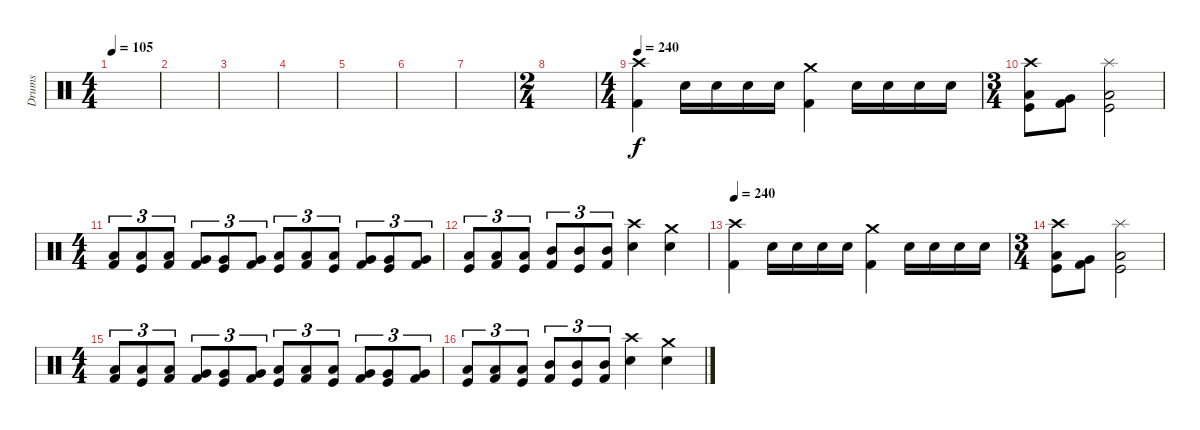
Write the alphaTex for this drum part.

\track ("Drums" "Drums") {instrument percussion}
\staff {score}
\articulation defaults
\ts (4 4)
\tempo 105
\clef neutral
\ks c
|
|
|
|
|
|
|
\ts (2 4)
|
\ts (4 4)
\tempo 240
("Crash high (hit)" "Kick (hit) 2").4 "Electric Snare (hit)".16 "Electric Snare (hit)".16 "Electric Snare (hit)".16 "Electric Snare (hit)".16 ("Crash medium (hit)" "Kick (hit) 2").4 "Electric Snare (hit)".16 "Electric Snare (hit)".16 "Electric Snare (hit)".16 "Electric Snare (hit)".16 |
\ts (3 4)
("Crash high (hit)" "Low Floor Tom (hit)" "Kick (hit)").8 ("Very Low Tom (hit)" "Kick (hit) 2").8 ("Splash (hit)" "Low Floor Tom (hit)" "Kick (hit)").2 |
\ts (4 4)
("Low Floor Tom (hit)" "Kick (hit) 2").8{tu (3 2)} ("Low Floor Tom (hit)" "Kick (hit)").8{tu (3 2)} ("Low Floor Tom (hit)" "Kick (hit) 2").8{tu (3 2)} ("Very Low Tom (hit)" "Kick (hit) 2").8{tu (3 2)} ("Very Low Tom (hit)" "Kick (hit)").8{tu (3 2)} ("Very Low Tom (hit)" "Kick (hit) 2").8{tu (3 2)} ("Low Floor Tom (hit)" "Kick (hit)").8{tu (3 2)} ("Low Floor Tom (hit)" "Kick (hit) 2").8{tu (3 2)} ("Low Floor Tom (hit)" "Kick (hit)").8{tu (3 2)} ("Very Low Tom (hit)" "Kick (hit) 2").8{tu (3 2)} ("Very Low Tom (hit)" "Kick (hit)").8{tu (3 2)} ("Very Low Tom (hit)" "Kick (hit) 2").8{tu (3 2)} |
("Low Tom (hit)" "Kick (hit)").8{tu (3 2)} ("Low Tom (hit)" "Kick (hit) 2").8{tu (3 2)} ("Low Tom (hit)" "Kick (hit)").8{tu (3 2)} ("Mid Tom (hit)" "Kick (hit) 2").8{tu (3 2)} ("Mid Tom (hit)" "Kick (hit)").8{tu (3 2)} ("Mid Tom (hit)" "Kick (hit) 2").8{tu (3 2)} ("Crash high (hit)" "Electric Snare (hit)").4 ("Crash medium (hit)" "Electric Snare (hit)").4 |
\tempo 240
("Crash high (hit)" "Kick (hit) 2").4 "Electric Snare (hit)".16 "Electric Snare (hit)".16 "Electric Snare (hit)".16 "Electric Snare (hit)".16 ("Crash medium (hit)" "Kick (hit) 2").4 "Electric Snare (hit)".16 "Electric Snare (hit)".16 "Electric Snare (hit)".16 "Electric Snare (hit)".16 |
\ts (3 4)
("Crash high (hit)" "Low Floor Tom (hit)" "Kick (hit)").8 ("Very Low Tom (hit)" "Kick (hit) 2").8 ("Splash (hit)" "Low Floor Tom (hit)" "Kick (hit)").2 |
\ts (4 4)
("Low Floor Tom (hit)" "Kick (hit) 2").8{tu (3 2)} ("Low Floor Tom (hit)" "Kick (hit)").8{tu (3 2)} ("Low Floor Tom (hit)" "Kick (hit) 2").8{tu (3 2)} ("Very Low Tom (hit)" "Kick (hit) 2").8{tu (3 2)} ("Very Low Tom (hit)" "Kick (hit)").8{tu (3 2)} ("Very Low Tom (hit)" "Kick (hit) 2").8{tu (3 2)} ("Low Floor Tom (hit)" "Kick (hit)").8{tu (3 2)} ("Low Floor Tom (hit)" "Kick (hit) 2").8{tu (3 2)} ("Low Floor Tom (hit)" "Kick (hit)").8{tu (3 2)} ("Very Low Tom (hit)" "Kick (hit) 2").8{tu (3 2)} ("Very Low Tom (hit)" "Kick (hit)").8{tu (3 2)} ("Very Low Tom (hit)" "Kick (hit) 2").8{tu (3 2)} |
("Low Tom (hit)" "Kick (hit)").8{tu (3 2)} ("Low Tom (hit)" "Kick (hit) 2").8{tu (3 2)} ("Low Tom (hit)" "Kick (hit)").8{tu (3 2)} ("Mid Tom (hit)" "Kick (hit) 2").8{tu (3 2)} ("Mid Tom (hit)" "Kick (hit)").8{tu (3 2)} ("Mid Tom (hit)" "Kick (hit) 2").8{tu (3 2)} ("Crash high (hit)" "Electric Snare (hit)").4 ("Crash medium (hit)" "Electric Snare (hit)").4
